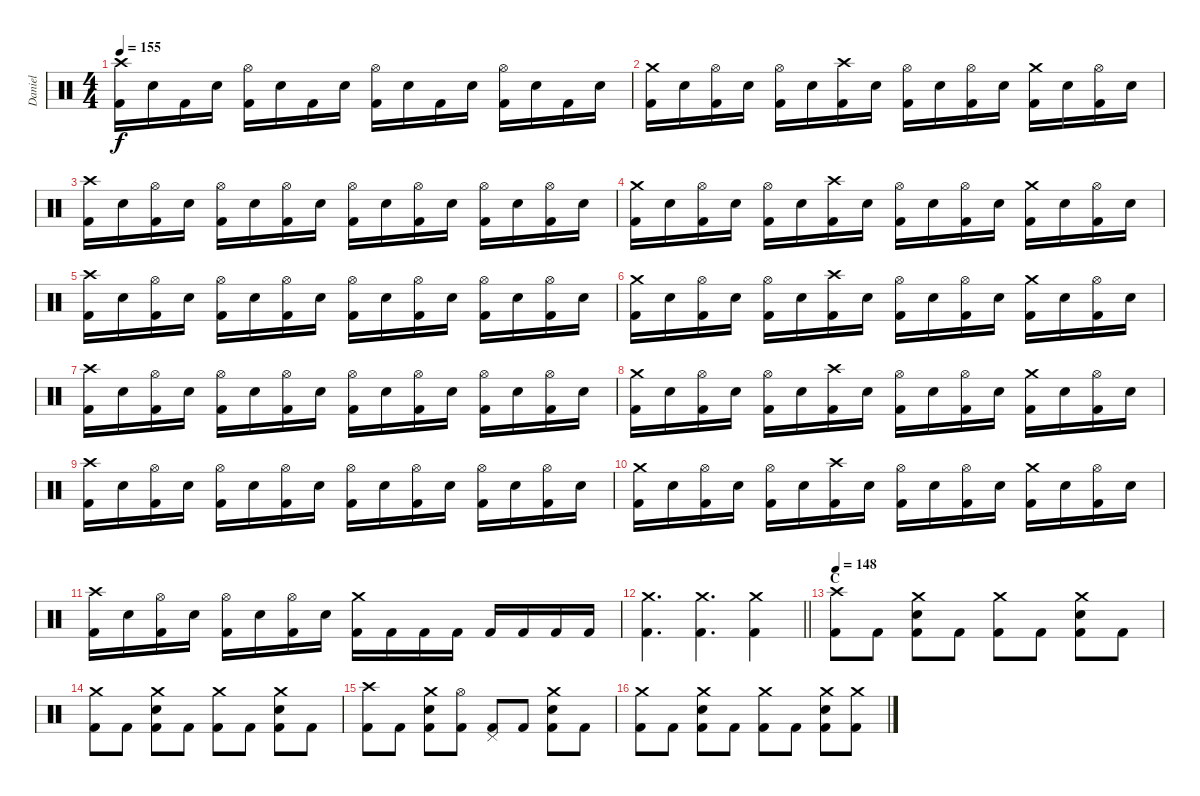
\track ("Daniel" "Daniel") {instrument percussion}
\staff {score}
\articulation defaults
\ts (4 4)
\tempo 155
\clef neutral
\ks c
("Crash high (hit)" "Kick (hit) 2").16{dy f} "Snare (hit) 2".16 "Kick (hit) 2".16 "Snare (hit) 2".16 ("Hi-Hat (open)" "Kick (hit) 2").16 "Snare (hit) 2".16 "Kick (hit) 2".16 "Snare (hit) 2".16 ("Hi-Hat (open)" "Kick (hit) 2").16 "Snare (hit) 2".16 "Kick (hit) 2".16 "Snare (hit) 2".16 ("Hi-Hat (open)" "Kick (hit) 2").16 "Snare (hit) 2".16 "Kick (hit) 2".16 "Snare (hit) 2".16 |
("Crash medium (hit)" "Kick (hit) 2").16 "Snare (hit) 2".16 ("Hi-Hat (open)" "Kick (hit) 2").16 "Snare (hit) 2".16 ("Hi-Hat (open)" "Kick (hit) 2").16 "Snare (hit) 2".16 ("Crash high (hit)" "Kick (hit) 2").16 "Snare (hit) 2".16 ("Hi-Hat (open)" "Kick (hit) 2").16 "Snare (hit) 2".16 ("Hi-Hat (open)" "Kick (hit) 2").16 "Snare (hit) 2".16 ("Crash medium (hit)" "Kick (hit) 2").16 "Snare (hit) 2".16 ("Hi-Hat (open)" "Kick (hit) 2").16 "Snare (hit) 2".16 |
("Crash high (hit)" "Kick (hit) 2").16 "Snare (hit) 2".16 ("Hi-Hat (open)" "Kick (hit) 2").16 "Snare (hit) 2".16 ("Hi-Hat (open)" "Kick (hit) 2").16 "Snare (hit) 2".16 ("Hi-Hat (open)" "Kick (hit) 2").16 "Snare (hit) 2".16 ("Hi-Hat (open)" "Kick (hit) 2").16 "Snare (hit) 2".16 ("Hi-Hat (open)" "Kick (hit) 2").16 "Snare (hit) 2".16 ("Hi-Hat (open)" "Kick (hit) 2").16 "Snare (hit) 2".16 ("Hi-Hat (open)" "Kick (hit) 2").16 "Snare (hit) 2".16 |
("Crash medium (hit)" "Kick (hit) 2").16 "Snare (hit) 2".16 ("Hi-Hat (open)" "Kick (hit) 2").16 "Snare (hit) 2".16 ("Hi-Hat (open)" "Kick (hit) 2").16 "Snare (hit) 2".16 ("Crash high (hit)" "Kick (hit) 2").16 "Snare (hit) 2".16 ("Hi-Hat (open)" "Kick (hit) 2").16 "Snare (hit) 2".16 ("Hi-Hat (open)" "Kick (hit) 2").16 "Snare (hit) 2".16 ("Crash medium (hit)" "Kick (hit) 2").16 "Snare (hit) 2".16 ("Hi-Hat (open)" "Kick (hit) 2").16 "Snare (hit) 2".16 |
("Crash high (hit)" "Kick (hit) 2").16 "Snare (hit) 2".16 ("Hi-Hat (open)" "Kick (hit) 2").16 "Snare (hit) 2".16 ("Hi-Hat (open)" "Kick (hit) 2").16 "Snare (hit) 2".16 ("Hi-Hat (open)" "Kick (hit) 2").16 "Snare (hit) 2".16 ("Hi-Hat (open)" "Kick (hit) 2").16 "Snare (hit) 2".16 ("Hi-Hat (open)" "Kick (hit) 2").16 "Snare (hit) 2".16 ("Hi-Hat (open)" "Kick (hit) 2").16 "Snare (hit) 2".16 ("Hi-Hat (open)" "Kick (hit) 2").16 "Snare (hit) 2".16 |
("Crash medium (hit)" "Kick (hit) 2").16 "Snare (hit) 2".16 ("Hi-Hat (open)" "Kick (hit) 2").16 "Snare (hit) 2".16 ("Hi-Hat (open)" "Kick (hit) 2").16 "Snare (hit) 2".16 ("Crash high (hit)" "Kick (hit) 2").16 "Snare (hit) 2".16 ("Hi-Hat (open)" "Kick (hit) 2").16 "Snare (hit) 2".16 ("Hi-Hat (open)" "Kick (hit) 2").16 "Snare (hit) 2".16 ("Crash medium (hit)" "Kick (hit) 2").16 "Snare (hit) 2".16 ("Hi-Hat (open)" "Kick (hit) 2").16 "Snare (hit) 2".16 |
("Crash high (hit)" "Kick (hit) 2").16 "Snare (hit) 2".16 ("Hi-Hat (open)" "Kick (hit) 2").16 "Snare (hit) 2".16 ("Hi-Hat (open)" "Kick (hit) 2").16 "Snare (hit) 2".16 ("Hi-Hat (open)" "Kick (hit) 2").16 "Snare (hit) 2".16 ("Hi-Hat (open)" "Kick (hit) 2").16 "Snare (hit) 2".16 ("Hi-Hat (open)" "Kick (hit) 2").16 "Snare (hit) 2".16 ("Hi-Hat (open)" "Kick (hit) 2").16 "Snare (hit) 2".16 ("Hi-Hat (open)" "Kick (hit) 2").16 "Snare (hit) 2".16 |
("Crash medium (hit)" "Kick (hit) 2").16 "Snare (hit) 2".16 ("Hi-Hat (open)" "Kick (hit) 2").16 "Snare (hit) 2".16 ("Hi-Hat (open)" "Kick (hit) 2").16 "Snare (hit) 2".16 ("Crash high (hit)" "Kick (hit) 2").16 "Snare (hit) 2".16 ("Hi-Hat (open)" "Kick (hit) 2").16 "Snare (hit) 2".16 ("Hi-Hat (open)" "Kick (hit) 2").16 "Snare (hit) 2".16 ("Crash medium (hit)" "Kick (hit) 2").16 "Snare (hit) 2".16 ("Hi-Hat (open)" "Kick (hit) 2").16 "Snare (hit) 2".16 |
("Crash high (hit)" "Kick (hit) 2").16 "Snare (hit) 2".16 ("Hi-Hat (open)" "Kick (hit) 2").16 "Snare (hit) 2".16 ("Hi-Hat (open)" "Kick (hit) 2").16 "Snare (hit) 2".16 ("Hi-Hat (open)" "Kick (hit) 2").16 "Snare (hit) 2".16 ("Hi-Hat (open)" "Kick (hit) 2").16 "Snare (hit) 2".16 ("Hi-Hat (open)" "Kick (hit) 2").16 "Snare (hit) 2".16 ("Hi-Hat (open)" "Kick (hit) 2").16 "Snare (hit) 2".16 ("Hi-Hat (open)" "Kick (hit) 2").16 "Snare (hit) 2".16 |
("Crash medium (hit)" "Kick (hit) 2").16 "Snare (hit) 2".16 ("Hi-Hat (open)" "Kick (hit) 2").16 "Snare (hit) 2".16 ("Hi-Hat (open)" "Kick (hit) 2").16 "Snare (hit) 2".16 ("Crash high (hit)" "Kick (hit) 2").16 "Snare (hit) 2".16 ("Hi-Hat (open)" "Kick (hit) 2").16 "Snare (hit) 2".16 ("Hi-Hat (open)" "Kick (hit) 2").16 "Snare (hit) 2".16 ("Crash medium (hit)" "Kick (hit) 2").16 "Snare (hit) 2".16 ("Hi-Hat (open)" "Kick (hit) 2").16 "Snare (hit) 2".16 |
("Crash high (hit)" "Kick (hit) 2").16 "Snare (hit) 2".16 ("Hi-Hat (open)" "Kick (hit) 2").16 "Snare (hit) 2".16 ("Hi-Hat (open)" "Kick (hit) 2").16 "Snare (hit) 2".16 ("Hi-Hat (open)" "Kick (hit) 2").16 "Snare (hit) 2".16 ("Crash medium (hit)" "Kick (hit) 2").16 "Kick (hit) 2".16 "Kick (hit) 2".16 "Kick (hit) 2".16 "Kick (hit) 2".16 "Kick (hit) 2".16 "Kick (hit) 2".16 "Kick (hit) 2".16 |
\barLineRight lightlight
("Crash medium (hit)" "Kick (hit) 2").4{d} ("Crash medium (hit)" "Kick (hit) 2").4{d} ("Crash medium (hit)" "Kick (hit) 2").4 |
\section ("" "C")
\tempo 148
("Crash high (hit)" "Kick (hit) 2").8 "Kick (hit) 2".8 ("Crash medium (hit)" "Snare (hit) 2" "Kick (hit) 2").8 "Kick (hit) 2".8 ("Crash medium (hit)" "Kick (hit) 2").8 "Kick (hit) 2".8 ("Crash medium (hit)" "Snare (hit) 2" "Kick (hit) 2").8 "Kick (hit) 2".8 |
("Crash medium (hit)" "Kick (hit) 2").8 "Kick (hit) 2".8 ("Crash medium (hit)" "Snare (hit) 2" "Kick (hit) 2").8 "Kick (hit) 2".8 ("Crash medium (hit)" "Kick (hit) 2").8 "Kick (hit) 2".8 ("Crash medium (hit)" "Snare (hit) 2" "Kick (hit) 2").8 "Kick (hit) 2".8 |
("Crash high (hit)" "Kick (hit) 2").8 "Kick (hit) 2".8 ("Crash medium (hit)" "Snare (hit) 2" "Kick (hit) 2").8 ("Hi-Hat (open)" "Kick (hit) 2").8 ("Pedal Hi-Hat (hit)" "Kick (hit) 2").8 "Kick (hit) 2".8 ("Crash medium (hit)" "Snare (hit) 2" "Kick (hit) 2").8 "Kick (hit) 2".8 |
("Crash medium (hit)" "Kick (hit) 2").8 "Kick (hit) 2".8 ("Crash medium (hit)" "Snare (hit) 2" "Kick (hit) 2").8 "Kick (hit) 2".8 ("Crash medium (hit)" "Kick (hit) 2").8 "Kick (hit) 2".8 ("Crash medium (hit)" "Snare (hit) 2" "Kick (hit) 2").8 ("Crash medium (hit)" "Kick (hit) 2").8
